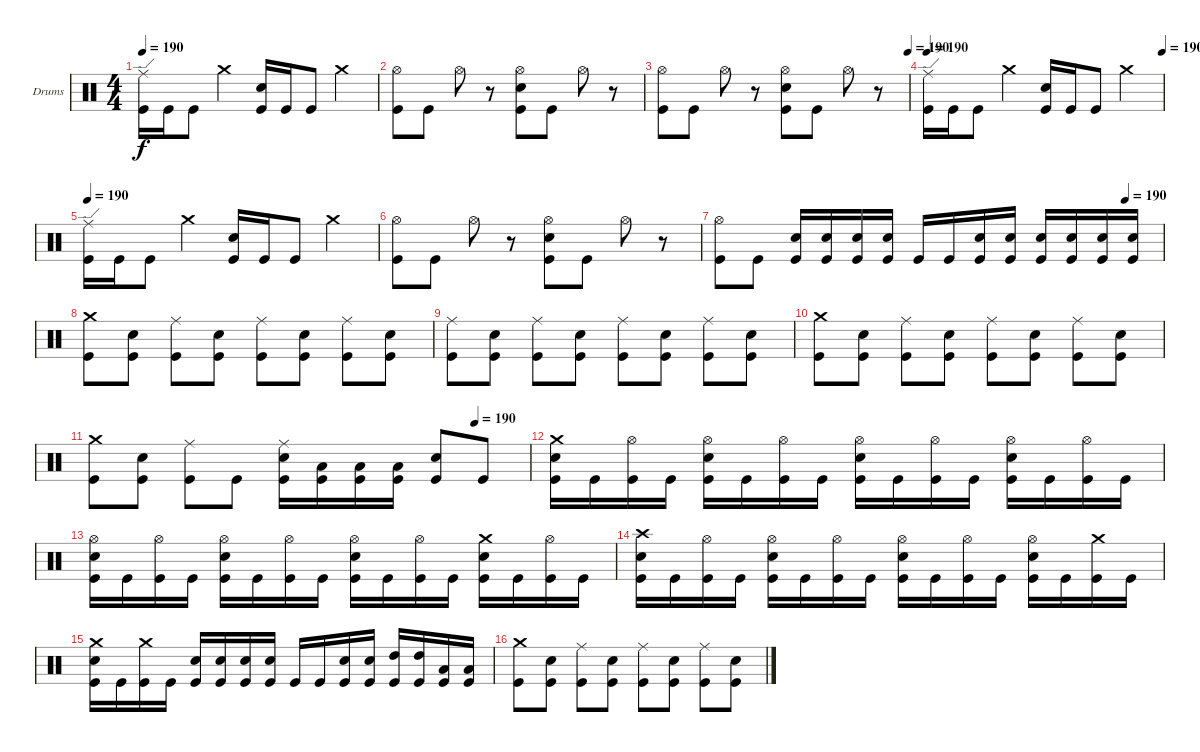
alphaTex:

\bracketExtendMode groupsimilarinstruments
\firstSystemTrackNameOrientation horizontal
\otherSystemsTrackNameOrientation horizontal
\track ("Drumkit" "Drums") {instrument percussion}
\staff {score}
\articulation defaults
\ts (4 4)
\tempo 190
\clef neutral
\ks c
("Ride (edge)" "Kick (hit)").16{dy f} "Kick (hit)".16 "Kick (hit)".8 "Crash medium (hit)".4 ("Snare (hit) 2" "Kick (hit)").16 "Kick (hit)".16 "Kick (hit)".8 "Crash medium (hit)".4 |
("Hi-Hat (open)" "Kick (hit)").8 "Kick (hit)".8 "Hi-Hat (open)".8 r.8 ("Hi-Hat (open)" "Snare (hit) 2" "Kick (hit)").8 "Kick (hit)".8 "Hi-Hat (open)".8 r.8 |
\tempo (190 1)
("Hi-Hat (open)" "Kick (hit)").8 "Kick (hit)".8 "Hi-Hat (open)".8 r.8 ("Hi-Hat (open)" "Snare (hit) 2" "Kick (hit)").8 "Kick (hit)".8 "Hi-Hat (open)".8 r.8 |
\tempo 190
\tempo (190 1)
("Ride (edge)" "Kick (hit)").16 "Kick (hit)".16 "Kick (hit)".8 "Crash medium (hit)".4 ("Snare (hit) 2" "Kick (hit)").16 "Kick (hit)".16 "Kick (hit)".8 "Crash medium (hit)".4 |
\tempo 190
("Ride (edge)" "Kick (hit)").16 "Kick (hit)".16 "Kick (hit)".8 "Crash medium (hit)".4 ("Snare (hit) 2" "Kick (hit)").16 "Kick (hit)".16 "Kick (hit)".8 "Crash medium (hit)".4 |
("Hi-Hat (open)" "Kick (hit)").8 "Kick (hit)".8 "Hi-Hat (open)".8 r.8 ("Hi-Hat (open)" "Snare (hit) 2" "Kick (hit)").8 "Kick (hit)".8 "Hi-Hat (open)".8 r.8 |
\tempo (190 0.916667)
("Hi-Hat (open)" "Kick (hit)").8 "Kick (hit)".8 ("Snare (hit) 2" "Kick (hit)").16 ("Snare (hit) 2" "Kick (hit)").16 ("Snare (hit) 2" "Kick (hit)").16 ("Snare (hit) 2" "Kick (hit)").16 "Kick (hit)".16 "Kick (hit)".16 ("Snare (hit) 2" "Kick (hit)").16 ("Snare (hit) 2" "Kick (hit)").16 ("Snare (hit) 2" "Kick (hit)").16 ("Snare (hit) 2" "Kick (hit)").16 ("Snare (hit) 2" "Kick (hit)").16 ("Snare (hit) 2" "Kick (hit)").16 |
("Crash medium (hit)" "Kick (hit)").8 ("Snare (hit) 2" "Kick (hit)").8 ("Ride (middle)" "Kick (hit)").8 ("Snare (hit) 2" "Kick (hit)").8 ("Ride (middle)" "Kick (hit)").8 ("Snare (hit) 2" "Kick (hit)").8 ("Ride (middle)" "Kick (hit)").8 ("Snare (hit) 2" "Kick (hit)").8 |
("Ride (middle)" "Kick (hit)").8 ("Snare (hit) 2" "Kick (hit)").8 ("Ride (middle)" "Kick (hit)").8 ("Snare (hit) 2" "Kick (hit)").8 ("Ride (middle)" "Kick (hit)").8 ("Snare (hit) 2" "Kick (hit)").8 ("Ride (middle)" "Kick (hit)").8 ("Snare (hit) 2" "Kick (hit)").8 |
("Crash medium (hit)" "Kick (hit)").8 ("Snare (hit) 2" "Kick (hit)").8 ("Ride (middle)" "Kick (hit)").8 ("Snare (hit) 2" "Kick (hit)").8 ("Ride (middle)" "Kick (hit)").8 ("Snare (hit) 2" "Kick (hit)").8 ("Ride (middle)" "Kick (hit)").8 ("Snare (hit) 2" "Kick (hit)").8 |
\tempo (190 0.875)
("Crash medium (hit)" "Kick (hit)").8 ("Snare (hit) 2" "Kick (hit)").8 ("Ride (middle)" "Kick (hit)").8 "Kick (hit)".8 ("Ride (middle)" "Snare (hit) 2" "Kick (hit)").16 ("Low Tom (hit)" "Kick (hit)").16 ("Low Tom (hit)" "Kick (hit)").16 ("Low Tom (hit)" "Kick (hit)").16 ("Snare (hit) 2" "Kick (hit)").8 "Kick (hit)".8 |
("Crash medium (hit)" "Snare (hit) 2" "Kick (hit)").16 "Kick (hit)".16 ("Hi-Hat (open)" "Kick (hit)").16 "Kick (hit)".16 ("Hi-Hat (open)" "Snare (hit) 2" "Kick (hit)").16 "Kick (hit)".16 ("Hi-Hat (open)" "Kick (hit)").16 "Kick (hit)".16 ("Hi-Hat (open)" "Snare (hit) 2" "Kick (hit)").16 "Kick (hit)".16 ("Hi-Hat (open)" "Kick (hit)").16 "Kick (hit)".16 ("Hi-Hat (open)" "Snare (hit) 2" "Kick (hit)").16 "Kick (hit)".16 ("Hi-Hat (open)" "Kick (hit)").16 "Kick (hit)".16 |
("Hi-Hat (open)" "Snare (hit) 2" "Kick (hit)").16 "Kick (hit)".16 ("Hi-Hat (open)" "Kick (hit)").16 "Kick (hit)".16 ("Hi-Hat (open)" "Snare (hit) 2" "Kick (hit)").16 "Kick (hit)".16 ("Hi-Hat (open)" "Kick (hit)").16 "Kick (hit)".16 ("Hi-Hat (open)" "Snare (hit) 2" "Kick (hit)").16 "Kick (hit)".16 ("Hi-Hat (open)" "Kick (hit)").16 "Kick (hit)".16 ("Crash medium (hit)" "Snare (hit) 2" "Kick (hit)").16 "Kick (hit)".16 ("Hi-Hat (open)" "Kick (hit)").16 "Kick (hit)".16 |
("Crash high (hit)" "Snare (hit) 2" "Kick (hit)").16 "Kick (hit)".16 ("Hi-Hat (open)" "Kick (hit)").16 "Kick (hit)".16 ("Hi-Hat (open)" "Snare (hit) 2" "Kick (hit)").16 "Kick (hit)".16 ("Hi-Hat (open)" "Kick (hit)").16 "Kick (hit)".16 ("Hi-Hat (open)" "Snare (hit) 2" "Kick (hit)").16 "Kick (hit)".16 ("Hi-Hat (open)" "Kick (hit)").16 "Kick (hit)".16 ("Hi-Hat (open)" "Snare (hit) 2" "Kick (hit)").16 "Kick (hit)".16 ("Crash medium (hit)" "Kick (hit)").16 "Kick (hit)".16 |
("Crash medium (hit)" "Snare (hit) 2" "Kick (hit)").16 "Kick (hit)".16 ("Crash medium (hit)" "Kick (hit)").16 "Kick (hit)".16 ("Snare (hit) 2" "Kick (hit)").16 ("Snare (hit) 2" "Kick (hit)").16 ("Snare (hit) 2" "Kick (hit)").16 ("Snare (hit) 2" "Kick (hit)").16 "Kick (hit)".16 "Kick (hit)".16 ("Snare (hit) 2" "Kick (hit)").16 ("Snare (hit) 2" "Kick (hit)").16 ("High Tom (hit)" "Kick (hit)").16 ("High Tom (hit)" "Kick (hit)").16 ("Low Tom (hit)" "Kick (hit)").16 ("Low Tom (hit)" "Kick (hit)").16 |
("Crash medium (hit)" "Kick (hit)").8 ("Snare (hit) 2" "Kick (hit)").8 ("Ride (middle)" "Kick (hit)").8 ("Snare (hit) 2" "Kick (hit)").8 ("Ride (middle)" "Kick (hit)").8 ("Snare (hit) 2" "Kick (hit)").8 ("Ride (middle)" "Kick (hit)").8 ("Snare (hit) 2" "Kick (hit)").8
